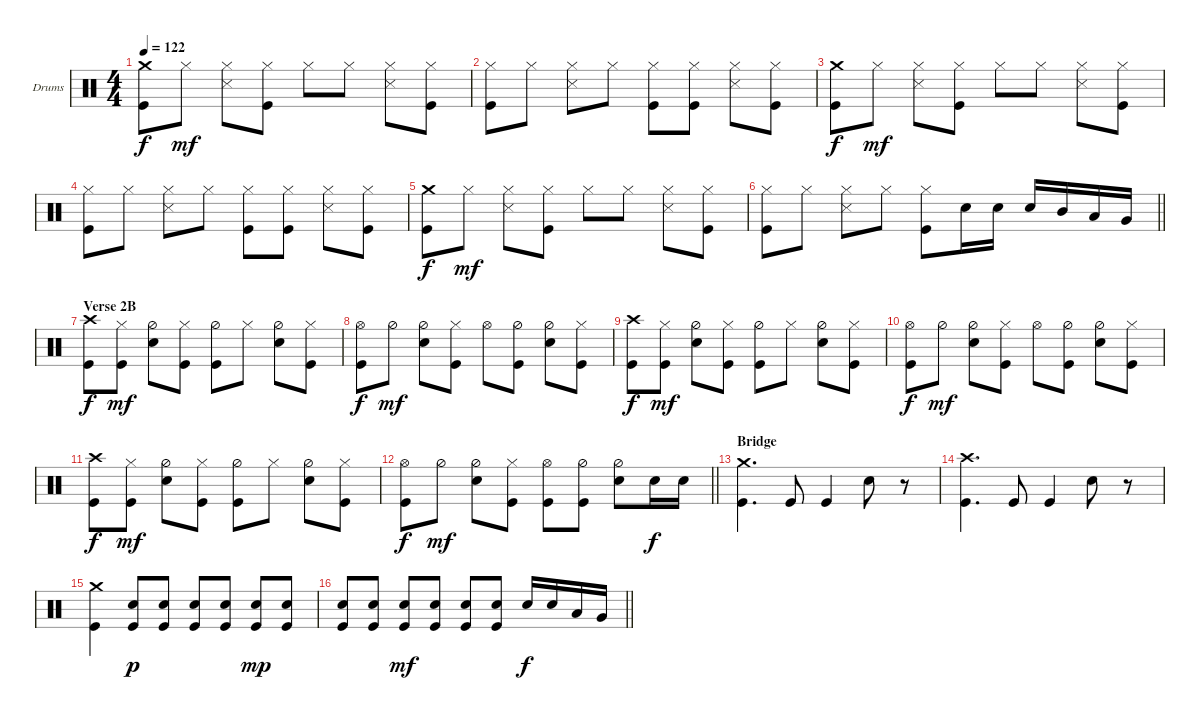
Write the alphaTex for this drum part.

\bracketExtendMode groupsimilarinstruments
\firstSystemTrackNameOrientation horizontal
\otherSystemsTrackNameOrientation horizontal
\track ("Batteria" "Drums") {instrument percussion}
\staff {score}
\articulation defaults
\ts (4 4)
\tempo 122
\clef neutral
\ks c
("Crash medium (hit)" "Kick (hit)").8{dy f} "Hi-Hat (closed)".8{dy mf} ("Hi-Hat (closed)" "Snare (side stick) 3").8 ("Hi-Hat (closed)" "Kick (hit)").8 "Hi-Hat (closed)".8 "Hi-Hat (closed)".8 ("Hi-Hat (closed)" "Snare (side stick) 3").8 ("Hi-Hat (closed)" "Kick (hit)").8 |
("Kick (hit)" "Hi-Hat (closed)").8 "Hi-Hat (closed)".8 ("Hi-Hat (closed)" "Snare (side stick) 3").8 "Hi-Hat (closed)".8 ("Hi-Hat (closed)" "Kick (hit)").8 ("Hi-Hat (closed)" "Kick (hit)").8 ("Hi-Hat (closed)" "Snare (side stick) 3").8 ("Hi-Hat (closed)" "Kick (hit)").8 |
("Crash medium (hit)" "Kick (hit)").8{dy f} "Hi-Hat (closed)".8{dy mf} ("Hi-Hat (closed)" "Snare (side stick) 3").8 ("Hi-Hat (closed)" "Kick (hit)").8 "Hi-Hat (closed)".8 "Hi-Hat (closed)".8 ("Hi-Hat (closed)" "Snare (side stick) 3").8 ("Hi-Hat (closed)" "Kick (hit)").8 |
("Kick (hit)" "Hi-Hat (closed)").8 "Hi-Hat (closed)".8 ("Hi-Hat (closed)" "Snare (side stick) 3").8 "Hi-Hat (closed)".8 ("Hi-Hat (closed)" "Kick (hit)").8 ("Hi-Hat (closed)" "Kick (hit)").8 ("Hi-Hat (closed)" "Snare (side stick) 3").8 ("Hi-Hat (closed)" "Kick (hit)").8 |
("Crash medium (hit)" "Kick (hit)").8{dy f} "Hi-Hat (closed)".8{dy mf} ("Hi-Hat (closed)" "Snare (side stick) 3").8 ("Hi-Hat (closed)" "Kick (hit)").8 "Hi-Hat (closed)".8 "Hi-Hat (closed)".8 ("Hi-Hat (closed)" "Snare (side stick) 3").8 ("Hi-Hat (closed)" "Kick (hit)").8 |
\barLineRight lightlight
("Kick (hit)" "Hi-Hat (closed)").8 "Hi-Hat (closed)".8 ("Hi-Hat (closed)" "Snare (side stick) 3").8 "Hi-Hat (closed)".8 ("Hi-Hat (closed)" "Kick (hit)").8 "Snare (hit) 2".16 "Snare (hit) 2".16 "Snare (hit) 2".16 "Mid Tom (hit)".16 "Low Tom (hit)".16 "Very Low Tom (hit)".16 |
\section ("" "Verse 2B")
("Kick (hit)" "Crash high (hit)").8{dy f} ("Hi-Hat (closed)" "Kick (hit)").8{dy mf} ("Hi-Hat (half)" "Snare (hit) 2").8 ("Hi-Hat (closed)" "Kick (hit)").8 ("Hi-Hat (half)" "Kick (hit)").8 "Hi-Hat (closed)".8 ("Hi-Hat (half)" "Snare (hit) 2").8 ("Hi-Hat (closed)" "Kick (hit)").8 |
("Kick (hit)" "Hi-Hat (open)").8{dy f} "Hi-Hat (half)".8{dy mf} ("Hi-Hat (half)" "Snare (hit) 2").8 ("Hi-Hat (closed)" "Kick (hit)").8 "Hi-Hat (open)".8 ("Hi-Hat (half)" "Kick (hit)").8 ("Hi-Hat (half)" "Snare (hit) 2").8 ("Hi-Hat (closed)" "Kick (hit)").8 |
("Kick (hit)" "Crash high (hit)").8{dy f} ("Hi-Hat (closed)" "Kick (hit)").8{dy mf} ("Hi-Hat (half)" "Snare (hit) 2").8 ("Hi-Hat (closed)" "Kick (hit)").8 ("Hi-Hat (half)" "Kick (hit)").8 "Hi-Hat (closed)".8 ("Hi-Hat (half)" "Snare (hit) 2").8 ("Hi-Hat (closed)" "Kick (hit)").8 |
("Kick (hit)" "Hi-Hat (open)").8{dy f} "Hi-Hat (half)".8{dy mf} ("Hi-Hat (half)" "Snare (hit) 2").8 ("Hi-Hat (closed)" "Kick (hit)").8 "Hi-Hat (open)".8 ("Hi-Hat (half)" "Kick (hit)").8 ("Hi-Hat (half)" "Snare (hit) 2").8 ("Hi-Hat (closed)" "Kick (hit)").8 |
("Kick (hit)" "Crash high (hit)").8{dy f} ("Hi-Hat (closed)" "Kick (hit)").8{dy mf} ("Hi-Hat (half)" "Snare (hit) 2").8 ("Hi-Hat (closed)" "Kick (hit)").8 ("Hi-Hat (half)" "Kick (hit)").8 "Hi-Hat (closed)".8 ("Hi-Hat (half)" "Snare (hit) 2").8 ("Hi-Hat (closed)" "Kick (hit)").8 |
\barLineRight lightlight
("Kick (hit)" "Hi-Hat (open)").8{dy f} "Hi-Hat (half)".8{dy mf} ("Hi-Hat (half)" "Snare (hit) 2").8 ("Hi-Hat (closed)" "Kick (hit)").8 ("Hi-Hat (open)" "Kick (hit)").8 ("Hi-Hat (half)" "Kick (hit)").8 ("Hi-Hat (half)" "Snare (hit) 2").8 "Snare (hit) 2".16{dy f} "Snare (hit) 2".16 |
\section ("" "Bridge")
("Crash medium (hit)" "Kick (hit)").4{d} "Kick (hit)".8 "Kick (hit)".4 "Snare (hit) 2".8 r.8 |
("Kick (hit)" "Crash high (hit)").4{d} "Kick (hit)".8 "Kick (hit)".4 "Snare (hit) 2".8 r.8 |
("Crash medium (hit)" "Kick (hit)").4 ("Snare (hit) 2" "Kick (hit)").8{dy p} ("Kick (hit)" "Snare (hit) 2").8 ("Kick (hit)" "Snare (hit) 2").8 ("Snare (hit) 2" "Kick (hit)").8 ("Snare (hit) 2" "Kick (hit)").8{dy mp} ("Snare (hit) 2" "Kick (hit)").8 |
\barLineRight lightlight
("Snare (hit) 2" "Kick (hit)").8 ("Snare (hit) 2" "Kick (hit)").8 ("Snare (hit) 2" "Kick (hit)").8{dy mf} ("Snare (hit) 2" "Kick (hit)").8 ("Snare (hit) 2" "Kick (hit)").8 ("Snare (hit) 2" "Kick (hit)").8 "Snare (hit) 2".16{dy f} "Snare (hit) 2".16 "Low Tom (hit)".16 "Very Low Tom (hit)".16
